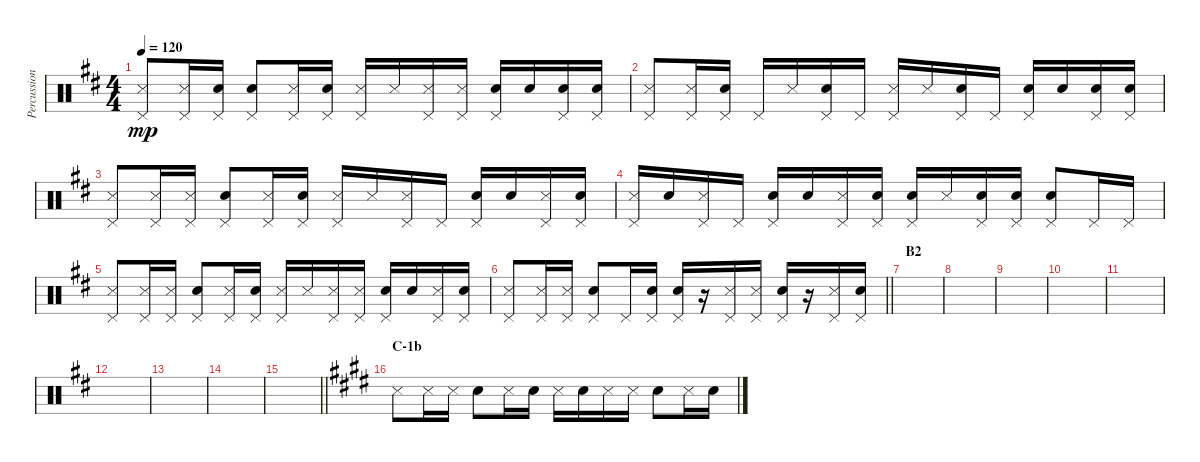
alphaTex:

\track ("Percussion (Tainaka Ritsu)" "Percussion") {instrument percussion}
\staff {score}
\articulation defaults
\ts (4 4)
\tempo 120
\clef neutral
\ks d
("Snare (side stick) 3" "Pedal Hi-Hat (hit)").8{dy mp} ("Snare (side stick) 3" "Pedal Hi-Hat (hit)").16 ("Snare (hit) 2" "Pedal Hi-Hat (hit)").16 ("Snare (hit) 2" "Pedal Hi-Hat (hit)").8 ("Snare (side stick) 3" "Pedal Hi-Hat (hit)").16 ("Snare (hit) 2" "Pedal Hi-Hat (hit)").16 ("Snare (side stick) 3" "Pedal Hi-Hat (hit)").16 "Snare (side stick) 3".16 ("Snare (side stick) 3" "Pedal Hi-Hat (hit)").16 ("Snare (side stick) 3" "Pedal Hi-Hat (hit)").16 ("Snare (hit) 2" "Pedal Hi-Hat (hit)").16 "Snare (hit) 2".16 ("Snare (hit) 2" "Pedal Hi-Hat (hit)").16 ("Snare (hit) 2" "Pedal Hi-Hat (hit)").16 |
("Snare (side stick) 3" "Pedal Hi-Hat (hit)").8 ("Snare (side stick) 3" "Pedal Hi-Hat (hit)").16 ("Snare (hit) 2" "Pedal Hi-Hat (hit)").16 "Pedal Hi-Hat (hit)".16 "Snare (side stick) 3".16 ("Snare (hit) 2" "Pedal Hi-Hat (hit)").16 "Pedal Hi-Hat (hit)".16 ("Snare (side stick) 3" "Pedal Hi-Hat (hit)").16 "Snare (side stick) 3".16 ("Snare (hit) 2" "Pedal Hi-Hat (hit)").16 "Pedal Hi-Hat (hit)".16 ("Snare (hit) 2" "Pedal Hi-Hat (hit)").16 "Snare (hit) 2".16 ("Snare (hit) 2" "Pedal Hi-Hat (hit)").16 ("Snare (hit) 2" "Pedal Hi-Hat (hit)").16 |
("Snare (side stick) 3" "Pedal Hi-Hat (hit)").8 ("Snare (side stick) 3" "Pedal Hi-Hat (hit)").16 ("Snare (side stick) 3" "Pedal Hi-Hat (hit)").16 ("Snare (hit) 2" "Pedal Hi-Hat (hit)").8 ("Snare (side stick) 3" "Pedal Hi-Hat (hit)").16 ("Snare (hit) 2" "Pedal Hi-Hat (hit)").16 ("Snare (side stick) 3" "Pedal Hi-Hat (hit)").16 "Snare (side stick) 3".16 ("Snare (side stick) 3" "Pedal Hi-Hat (hit)").16 "Pedal Hi-Hat (hit)".16 ("Snare (hit) 2" "Pedal Hi-Hat (hit)").16 "Snare (hit) 2".16 ("Snare (side stick) 3" "Pedal Hi-Hat (hit)").16 ("Snare (hit) 2" "Pedal Hi-Hat (hit)").16 |
("Snare (side stick) 3" "Pedal Hi-Hat (hit)").16 "Snare (hit) 2".16 ("Snare (side stick) 3" "Pedal Hi-Hat (hit)").16 "Pedal Hi-Hat (hit)".16 ("Snare (hit) 2" "Pedal Hi-Hat (hit)").16 "Snare (hit) 2".16 ("Snare (side stick) 3" "Pedal Hi-Hat (hit)").16 ("Snare (hit) 2" "Pedal Hi-Hat (hit)").16 ("Snare (hit) 2" "Pedal Hi-Hat (hit)").16 "Snare (side stick) 3".16 ("Snare (hit) 2" "Pedal Hi-Hat (hit)").16 ("Snare (hit) 2" "Pedal Hi-Hat (hit)").16 ("Snare (hit) 2" "Pedal Hi-Hat (hit)").8 "Pedal Hi-Hat (hit)".16 "Pedal Hi-Hat (hit)".16 |
("Snare (side stick) 3" "Pedal Hi-Hat (hit)").8 ("Snare (side stick) 3" "Pedal Hi-Hat (hit)").16 ("Snare (side stick) 3" "Pedal Hi-Hat (hit)").16 ("Snare (hit) 2" "Pedal Hi-Hat (hit)").8 ("Snare (side stick) 3" "Pedal Hi-Hat (hit)").16 ("Snare (hit) 2" "Pedal Hi-Hat (hit)").16 ("Snare (side stick) 3" "Pedal Hi-Hat (hit)").16 "Snare (side stick) 3".16 ("Snare (side stick) 3" "Pedal Hi-Hat (hit)").16 ("Snare (side stick) 3" "Pedal Hi-Hat (hit)").16 ("Snare (hit) 2" "Pedal Hi-Hat (hit)").16 "Snare (hit) 2".16 ("Snare (side stick) 3" "Pedal Hi-Hat (hit)").16 ("Snare (hit) 2" "Pedal Hi-Hat (hit)").16 |
\barLineRight lightlight
("Snare (side stick) 3" "Pedal Hi-Hat (hit)").8 ("Snare (side stick) 3" "Pedal Hi-Hat (hit)").16 ("Snare (side stick) 3" "Pedal Hi-Hat (hit)").16 ("Snare (hit) 2" "Pedal Hi-Hat (hit)").8 "Pedal Hi-Hat (hit)".16 ("Snare (hit) 2" "Pedal Hi-Hat (hit)").16 ("Snare (hit) 2" "Pedal Hi-Hat (hit)").16 r.16 ("Snare (side stick) 3" "Pedal Hi-Hat (hit)").16 ("Snare (side stick) 3" "Pedal Hi-Hat (hit)").16 ("Snare (hit) 2" "Pedal Hi-Hat (hit)").16 r.16 ("Snare (side stick) 3" "Pedal Hi-Hat (hit)").16 ("Snare (hit) 2" "Pedal Hi-Hat (hit)").16 |
\section ("" "B2")
|
|
|
|
|
|
|
|
\barLineRight lightlight
|
\section ("" "C-1b")
\ks e "Snare (side stick) 3".8 "Snare (side stick) 3".16 "Snare (side stick) 3".16 "Snare (hit) 2".8 "Snare (side stick) 3".16 "Snare (hit) 2".16 "Snare (side stick) 3".16 "Snare (hit) 2".16 "Snare (side stick) 3".16 "Snare (side stick) 3".16 "Snare (hit) 2".8 "Snare (side stick) 3".16 "Snare (hit) 2".16
